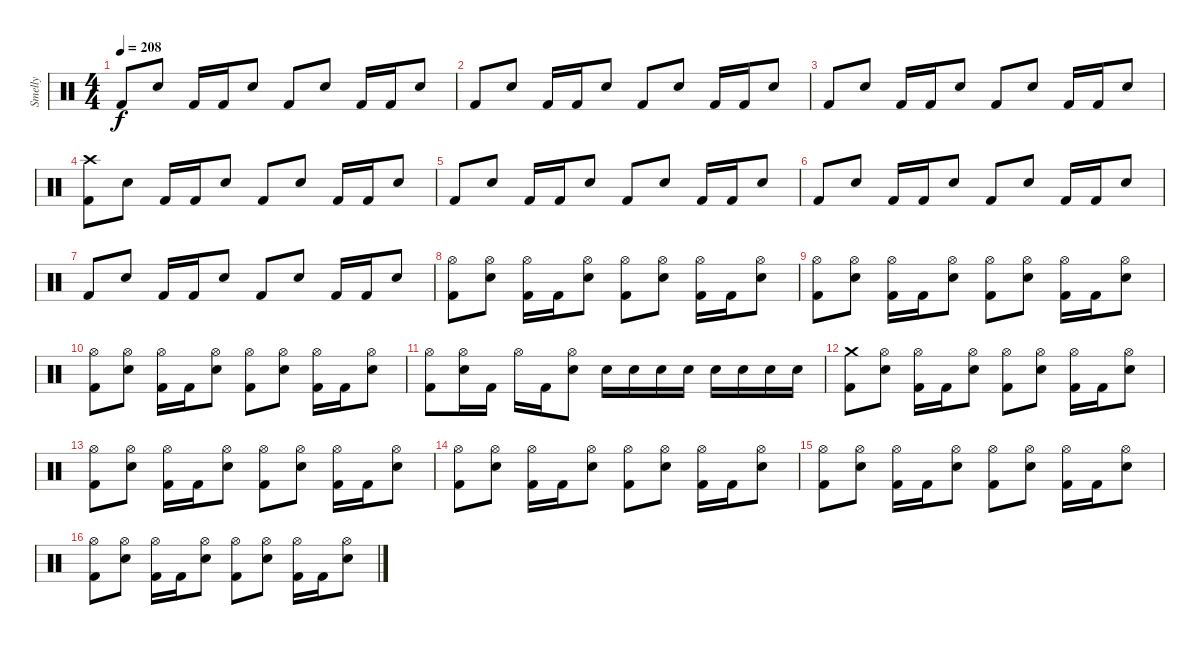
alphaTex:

\track ("Smelly" "Smelly") {instrument percussion}
\staff {score}
\articulation defaults
\ts (4 4)
\tempo 208
\clef neutral
\ks c "Kick (hit) 2".8{dy f} "Electric Snare (hit)".8 "Kick (hit) 2".16 "Kick (hit) 2".16 "Electric Snare (hit)".8 "Kick (hit) 2".8 "Electric Snare (hit)".8 "Kick (hit) 2".16 "Kick (hit) 2".16 "Electric Snare (hit)".8
|
"Kick (hit) 2".8 "Electric Snare (hit)".8 "Kick (hit) 2".16 "Kick (hit) 2".16 "Electric Snare (hit)".8 "Kick (hit) 2".8 "Electric Snare (hit)".8 "Kick (hit) 2".16 "Kick (hit) 2".16 "Electric Snare (hit)".8 |
"Kick (hit) 2".8 "Electric Snare (hit)".8 "Kick (hit) 2".16 "Kick (hit) 2".16 "Electric Snare (hit)".8 "Kick (hit) 2".8 "Electric Snare (hit)".8 "Kick (hit) 2".16 "Kick (hit) 2".16 "Electric Snare (hit)".8 |
("Crash high (hit)" "Kick (hit) 2").8 "Electric Snare (hit)".8 "Kick (hit) 2".16 "Kick (hit) 2".16 "Electric Snare (hit)".8 "Kick (hit) 2".8 "Electric Snare (hit)".8 "Kick (hit) 2".16 "Kick (hit) 2".16 "Electric Snare (hit)".8 |
"Kick (hit) 2".8 "Electric Snare (hit)".8 "Kick (hit) 2".16 "Kick (hit) 2".16 "Electric Snare (hit)".8 "Kick (hit) 2".8 "Electric Snare (hit)".8 "Kick (hit) 2".16 "Kick (hit) 2".16 "Electric Snare (hit)".8 |
"Kick (hit) 2".8 "Electric Snare (hit)".8 "Kick (hit) 2".16 "Kick (hit) 2".16 "Electric Snare (hit)".8 "Kick (hit) 2".8 "Electric Snare (hit)".8 "Kick (hit) 2".16 "Kick (hit) 2".16 "Electric Snare (hit)".8 |
"Kick (hit) 2".8 "Electric Snare (hit)".8 "Kick (hit) 2".16 "Kick (hit) 2".16 "Electric Snare (hit)".8 "Kick (hit) 2".8 "Electric Snare (hit)".8 "Kick (hit) 2".16 "Kick (hit) 2".16 "Electric Snare (hit)".8 |
("Kick (hit) 2" "Hi-Hat (open)").8 ("Hi-Hat (open)" "Electric Snare (hit)").8 ("Kick (hit) 2" "Hi-Hat (open)").16 "Kick (hit) 2".16 ("Hi-Hat (open)" "Electric Snare (hit)").8 ("Kick (hit) 2" "Hi-Hat (open)").8 ("Hi-Hat (open)" "Electric Snare (hit)").8 ("Kick (hit) 2" "Hi-Hat (open)").16 "Kick (hit) 2".16 ("Hi-Hat (open)" "Electric Snare (hit)").8 |
("Kick (hit) 2" "Hi-Hat (open)").8 ("Hi-Hat (open)" "Electric Snare (hit)").8 ("Kick (hit) 2" "Hi-Hat (open)").16 "Kick (hit) 2".16 ("Hi-Hat (open)" "Electric Snare (hit)").8 ("Kick (hit) 2" "Hi-Hat (open)").8 ("Hi-Hat (open)" "Electric Snare (hit)").8 ("Kick (hit) 2" "Hi-Hat (open)").16 "Kick (hit) 2".16 ("Hi-Hat (open)" "Electric Snare (hit)").8 |
("Kick (hit) 2" "Hi-Hat (open)").8 ("Hi-Hat (open)" "Electric Snare (hit)").8 ("Kick (hit) 2" "Hi-Hat (open)").16 "Kick (hit) 2".16 ("Hi-Hat (open)" "Electric Snare (hit)").8 ("Kick (hit) 2" "Hi-Hat (open)").8 ("Hi-Hat (open)" "Electric Snare (hit)").8 ("Kick (hit) 2" "Hi-Hat (open)").16 "Kick (hit) 2".16 ("Hi-Hat (open)" "Electric Snare (hit)").8 |
("Hi-Hat (open)" "Kick (hit) 2").8 ("Hi-Hat (open)" "Electric Snare (hit)").16 "Kick (hit) 2".16 "Hi-Hat (open)".16 "Kick (hit) 2".16 ("Hi-Hat (open)" "Electric Snare (hit)").8 "Electric Snare (hit)".16 "Electric Snare (hit)".16 "Electric Snare (hit)".16 "Electric Snare (hit)".16 "Electric Snare (hit)".16 "Electric Snare (hit)".16 "Electric Snare (hit)".16 "Electric Snare (hit)".16 |
("Crash medium (hit)" "Kick (hit) 2").8 ("Hi-Hat (open)" "Electric Snare (hit)").8 ("Kick (hit) 2" "Hi-Hat (open)").16 "Kick (hit) 2".16 ("Hi-Hat (open)" "Electric Snare (hit)").8 ("Kick (hit) 2" "Hi-Hat (open)").8 ("Hi-Hat (open)" "Electric Snare (hit)").8 ("Kick (hit) 2" "Hi-Hat (open)").16 "Kick (hit) 2".16 ("Hi-Hat (open)" "Electric Snare (hit)").8 |
("Kick (hit) 2" "Hi-Hat (open)").8 ("Hi-Hat (open)" "Electric Snare (hit)").8 ("Kick (hit) 2" "Hi-Hat (open)").16 "Kick (hit) 2".16 ("Hi-Hat (open)" "Electric Snare (hit)").8 ("Kick (hit) 2" "Hi-Hat (open)").8 ("Hi-Hat (open)" "Electric Snare (hit)").8 ("Kick (hit) 2" "Hi-Hat (open)").16 "Kick (hit) 2".16 ("Hi-Hat (open)" "Electric Snare (hit)").8 |
("Kick (hit) 2" "Hi-Hat (open)").8 ("Hi-Hat (open)" "Electric Snare (hit)").8 ("Kick (hit) 2" "Hi-Hat (open)").16 "Kick (hit) 2".16 ("Hi-Hat (open)" "Electric Snare (hit)").8 ("Kick (hit) 2" "Hi-Hat (open)").8 ("Hi-Hat (open)" "Electric Snare (hit)").8 ("Kick (hit) 2" "Hi-Hat (open)").16 "Kick (hit) 2".16 ("Hi-Hat (open)" "Electric Snare (hit)").8 |
("Kick (hit) 2" "Hi-Hat (open)").8 ("Hi-Hat (open)" "Electric Snare (hit)").8 ("Kick (hit) 2" "Hi-Hat (open)").16 "Kick (hit) 2".16 ("Hi-Hat (open)" "Electric Snare (hit)").8 ("Kick (hit) 2" "Hi-Hat (open)").8 ("Hi-Hat (open)" "Electric Snare (hit)").8 ("Kick (hit) 2" "Hi-Hat (open)").16 "Kick (hit) 2".16 ("Hi-Hat (open)" "Electric Snare (hit)").8 |
("Kick (hit) 2" "Hi-Hat (open)").8 ("Hi-Hat (open)" "Electric Snare (hit)").8 ("Kick (hit) 2" "Hi-Hat (open)").16 "Kick (hit) 2".16 ("Hi-Hat (open)" "Electric Snare (hit)").8 ("Kick (hit) 2" "Hi-Hat (open)").8 ("Hi-Hat (open)" "Electric Snare (hit)").8 ("Kick (hit) 2" "Hi-Hat (open)").16 "Kick (hit) 2".16 ("Hi-Hat (open)" "Electric Snare (hit)").8
